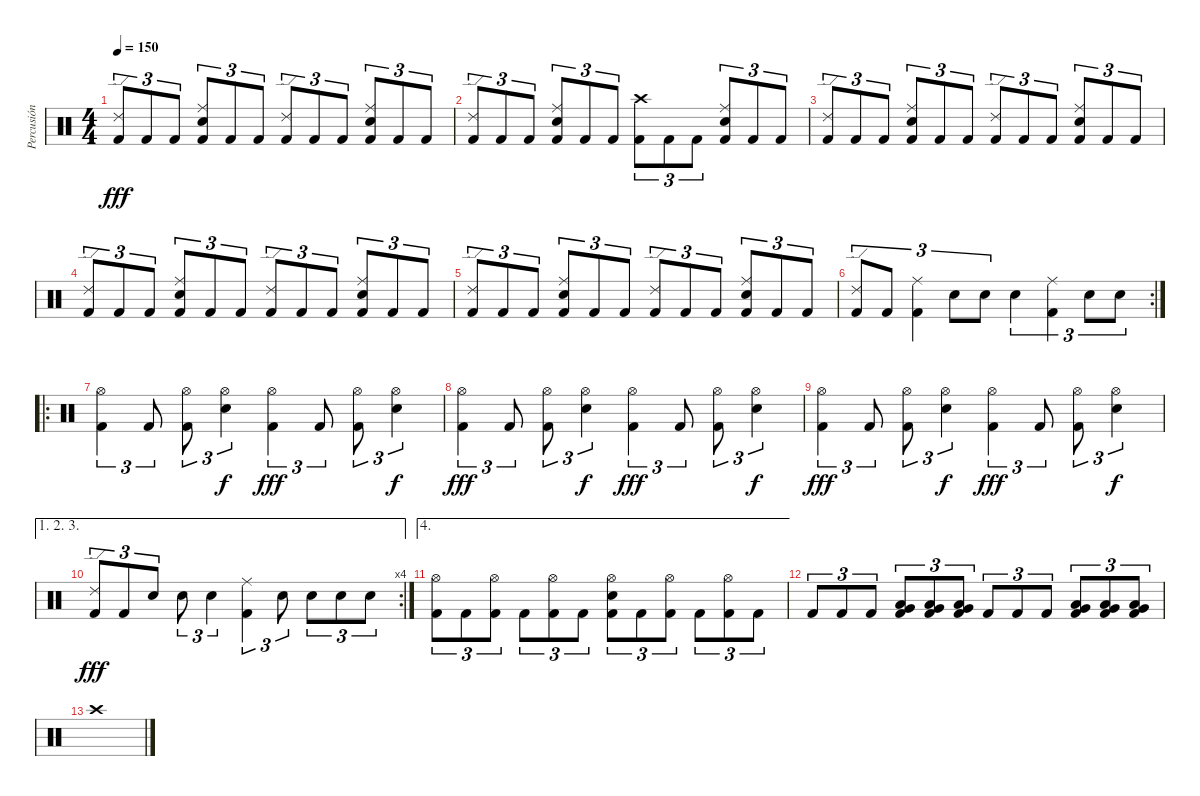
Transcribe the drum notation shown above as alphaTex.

\track ("Percusión" "Percusión") {instrument percussion}
\staff {score}
\articulation defaults
\ts (4 4)
\tempo 150
\clef neutral
\ks c
("Ride (edge) 2" "Kick (hit) 2").8{tu (3 2) dy fff} "Kick (hit) 2".8{tu (3 2)} "Kick (hit) 2".8{tu (3 2)} ("Ride (middle)" "Snare (hit) 2" "Kick (hit) 2").8{tu (3 2)} "Kick (hit) 2".8{tu (3 2)} "Kick (hit) 2".8{tu (3 2)} ("Ride (edge) 2" "Kick (hit) 2").8{tu (3 2)} "Kick (hit) 2".8{tu (3 2)} "Kick (hit) 2".8{tu (3 2)} ("Ride (middle)" "Snare (hit) 2" "Kick (hit) 2").8{tu (3 2)} "Kick (hit) 2".8{tu (3 2)} "Kick (hit) 2".8{tu (3 2)} |
("Ride (edge) 2" "Kick (hit) 2").8{tu (3 2)} "Kick (hit) 2".8{tu (3 2)} "Kick (hit) 2".8{tu (3 2)} ("Ride (middle)" "Snare (hit) 2" "Kick (hit) 2").8{tu (3 2)} "Kick (hit) 2".8{tu (3 2)} "Kick (hit) 2".8{tu (3 2)} ("Crash high (hit)" "Kick (hit) 2").8{tu (3 2)} "Kick (hit) 2".8{tu (3 2)} "Kick (hit) 2".8{tu (3 2)} ("Ride (middle)" "Snare (hit) 2" "Kick (hit) 2").8{tu (3 2)} "Kick (hit) 2".8{tu (3 2)} "Kick (hit) 2".8{tu (3 2)} |
("Ride (edge) 2" "Kick (hit) 2").8{tu (3 2)} "Kick (hit) 2".8{tu (3 2)} "Kick (hit) 2".8{tu (3 2)} ("Ride (middle)" "Snare (hit) 2" "Kick (hit) 2").8{tu (3 2)} "Kick (hit) 2".8{tu (3 2)} "Kick (hit) 2".8{tu (3 2)} ("Ride (edge) 2" "Kick (hit) 2").8{tu (3 2)} "Kick (hit) 2".8{tu (3 2)} "Kick (hit) 2".8{tu (3 2)} ("Ride (middle)" "Snare (hit) 2" "Kick (hit) 2").8{tu (3 2)} "Kick (hit) 2".8{tu (3 2)} "Kick (hit) 2".8{tu (3 2)} |
("Ride (edge) 2" "Kick (hit) 2").8{tu (3 2)} "Kick (hit) 2".8{tu (3 2)} "Kick (hit) 2".8{tu (3 2)} ("Ride (middle)" "Snare (hit) 2" "Kick (hit) 2").8{tu (3 2)} "Kick (hit) 2".8{tu (3 2)} "Kick (hit) 2".8{tu (3 2)} ("Ride (edge) 2" "Kick (hit) 2").8{tu (3 2)} "Kick (hit) 2".8{tu (3 2)} "Kick (hit) 2".8{tu (3 2)} ("Ride (middle)" "Snare (hit) 2" "Kick (hit) 2").8{tu (3 2)} "Kick (hit) 2".8{tu (3 2)} "Kick (hit) 2".8{tu (3 2)} |
("Ride (edge) 2" "Kick (hit) 2").8{tu (3 2)} "Kick (hit) 2".8{tu (3 2)} "Kick (hit) 2".8{tu (3 2)} ("Ride (middle)" "Snare (hit) 2" "Kick (hit) 2").8{tu (3 2)} "Kick (hit) 2".8{tu (3 2)} "Kick (hit) 2".8{tu (3 2)} ("Ride (edge) 2" "Kick (hit) 2").8{tu (3 2)} "Kick (hit) 2".8{tu (3 2)} "Kick (hit) 2".8{tu (3 2)} ("Ride (middle)" "Snare (hit) 2" "Kick (hit) 2").8{tu (3 2)} "Kick (hit) 2".8{tu (3 2)} "Kick (hit) 2".8{tu (3 2)} |
\rc 2
("Ride (edge) 2" "Kick (hit) 2").8{tu (3 2)} "Kick (hit) 2".8{tu (3 2)} ("Ride (middle)" "Kick (hit) 2").4{tu (3 2)} "Electric Snare (hit)".8{tu (3 2)} "Electric Snare (hit)".8{tu (3 2)} "Electric Snare (hit)".4{tu (3 2)} ("Ride (middle)" "Kick (hit) 2").4{tu (3 2)} "Electric Snare (hit)".8{tu (3 2)} "Electric Snare (hit)".8{tu (3 2)} |
\ro
("Hi-Hat (open)" "Kick (hit) 2").4{tu (3 2)} "Kick (hit) 2".8{tu (3 2)} ("Hi-Hat (open)" "Kick (hit) 2").8{tu (3 2)} ("Hi-Hat (open)" "Snare (hit) 2").4{tu (3 2) dy f} ("Hi-Hat (open)" "Kick (hit) 2").4{tu (3 2) dy fff} "Kick (hit) 2".8{tu (3 2)} ("Hi-Hat (open)" "Kick (hit) 2").8{tu (3 2)} ("Hi-Hat (open)" "Snare (hit) 2").4{tu (3 2) dy f} |
("Hi-Hat (open)" "Kick (hit) 2").4{tu (3 2) dy fff} "Kick (hit) 2".8{tu (3 2)} ("Hi-Hat (open)" "Kick (hit) 2").8{tu (3 2)} ("Hi-Hat (open)" "Snare (hit) 2").4{tu (3 2) dy f} ("Hi-Hat (open)" "Kick (hit) 2").4{tu (3 2) dy fff} "Kick (hit) 2".8{tu (3 2)} ("Hi-Hat (open)" "Kick (hit) 2").8{tu (3 2)} ("Hi-Hat (open)" "Snare (hit) 2").4{tu (3 2) dy f} |
("Hi-Hat (open)" "Kick (hit) 2").4{tu (3 2) dy fff} "Kick (hit) 2".8{tu (3 2)} ("Hi-Hat (open)" "Kick (hit) 2").8{tu (3 2)} ("Hi-Hat (open)" "Snare (hit) 2").4{tu (3 2) dy f} ("Hi-Hat (open)" "Kick (hit) 2").4{tu (3 2) dy fff} "Kick (hit) 2".8{tu (3 2)} ("Hi-Hat (open)" "Kick (hit) 2").8{tu (3 2)} ("Hi-Hat (open)" "Snare (hit) 2").4{tu (3 2) dy f} |
\ae (1 2 3)
\rc 4
("Ride (edge) 2" "Kick (hit) 2").8{tu (3 2) dy fff} "Kick (hit) 2".8{tu (3 2)} "Snare (hit) 2".8{tu (3 2)} "Snare (hit) 2".8{tu (3 2)} "Snare (hit) 2".4{tu (3 2)} ("Ride (middle)" "Kick (hit) 2").4{tu (3 2)} "Snare (hit) 2".8{tu (3 2)} "Snare (hit) 2".8{tu (3 2)} "Snare (hit) 2".8{tu (3 2)} "Snare (hit) 2".8{tu (3 2)} |
\ae 4
("Hi-Hat (open)" "Kick (hit) 2").8{tu (3 2)} "Kick (hit) 2".8{tu (3 2)} ("Hi-Hat (open)" "Kick (hit) 2").8{tu (3 2)} "Kick (hit) 2".8{tu (3 2)} ("Hi-Hat (open)" "Kick (hit) 2").8{tu (3 2)} "Kick (hit) 2".8{tu (3 2)} ("Hi-Hat (open)" "Snare (hit) 2" "Kick (hit) 2").8{tu (3 2)} "Kick (hit) 2".8{tu (3 2)} ("Hi-Hat (open)" "Kick (hit) 2").8{tu (3 2)} "Kick (hit) 2".8{tu (3 2)} ("Hi-Hat (open)" "Kick (hit) 2").8{tu (3 2)} "Kick (hit) 2".8{tu (3 2)} |
"Kick (hit) 2".8{tu (3 2)} "Kick (hit) 2".8{tu (3 2)} "Kick (hit) 2".8{tu (3 2)} ("Very Low Tom (hit)" "Low Tom (hit)" "Kick (hit) 2").8{tu (3 2)} ("Very Low Tom (hit)" "Low Tom (hit)" "Kick (hit) 2").8{tu (3 2)} ("Very Low Tom (hit)" "Low Tom (hit)" "Kick (hit) 2").8{tu (3 2)} "Kick (hit) 2".8{tu (3 2)} "Kick (hit) 2".8{tu (3 2)} "Kick (hit) 2".8{tu (3 2)} ("Very Low Tom (hit)" "Low Tom (hit)" "Kick (hit) 2").8{tu (3 2)} ("Very Low Tom (hit)" "Low Tom (hit)" "Kick (hit) 2").8{tu (3 2)} ("Very Low Tom (hit)" "Low Tom (hit)" "Kick (hit) 2").8{tu (3 2)} |
"Crash high (hit)".1
